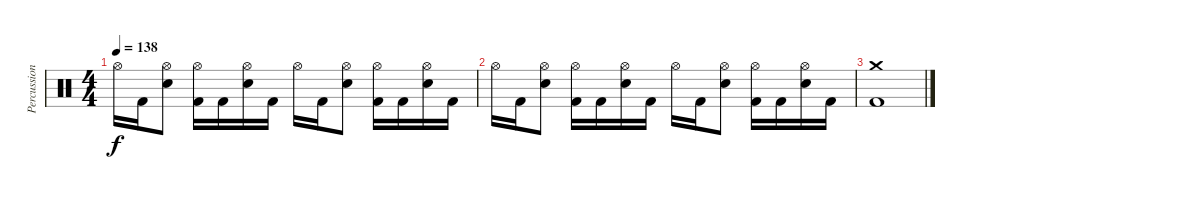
\track ("Percussion" "Percussion") {instrument percussion}
\staff {score}
\articulation defaults
\ts (4 4)
\tempo 138
\clef neutral
\ks c "Hi-Hat (open)".16{dy f} "Kick (hit) 2".16
("Hi-Hat (open)" "Snare (hit) 2").8 ("Hi-Hat (open)" "Kick (hit) 2").16 "Kick (hit) 2".16 ("Hi-Hat (open)" "Snare (hit) 2").16 "Kick (hit) 2".16 "Hi-Hat (open)".16 "Kick (hit) 2".16 ("Hi-Hat (open)" "Snare (hit) 2").8 ("Hi-Hat (open)" "Kick (hit) 2").16 "Kick (hit) 2".16 ("Hi-Hat (open)" "Snare (hit) 2").16 "Kick (hit) 2".16 |
"Hi-Hat (open)".16 "Kick (hit) 2".16 ("Hi-Hat (open)" "Snare (hit) 2").8 ("Hi-Hat (open)" "Kick (hit) 2").16 "Kick (hit) 2".16 ("Hi-Hat (open)" "Snare (hit) 2").16 "Kick (hit) 2".16 "Hi-Hat (open)".16 "Kick (hit) 2".16 ("Hi-Hat (open)" "Snare (hit) 2").8 ("Hi-Hat (open)" "Kick (hit) 2").16 "Kick (hit) 2".16 ("Hi-Hat (open)" "Snare (hit) 2").16 "Kick (hit) 2".16 |
("Crash medium (hit)" "Kick (hit) 2").1
